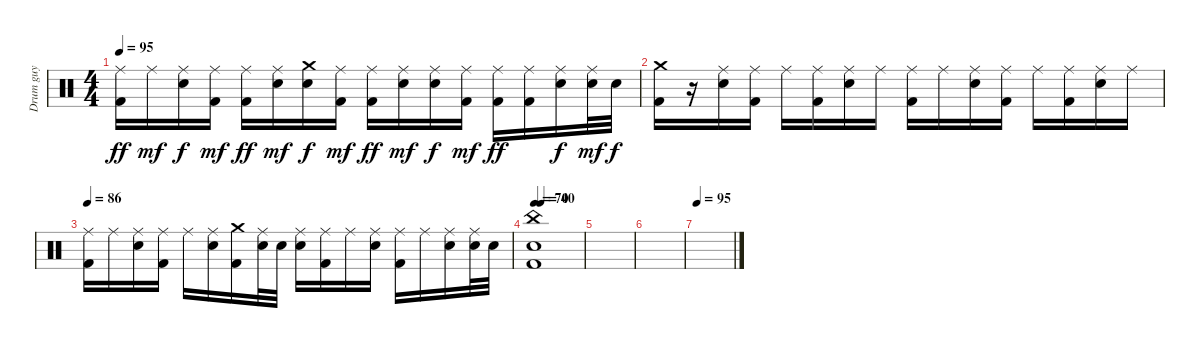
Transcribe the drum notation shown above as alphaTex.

\track ("Drum guy" "Drum guy") {instrument percussion}
\staff {score}
\articulation defaults
\ts (4 4)
\tempo 95
\clef neutral
\ks c
("Ride (middle)" "Kick (hit) 2").16{dy ff} "Ride (middle)".16{dy mf} ("Ride (middle)" "Electric Snare (hit)").16{dy f} ("Ride (middle)" "Kick (hit) 2").16{dy mf} ("Ride (middle)" "Kick (hit) 2").16{dy ff} ("Ride (middle)" "Electric Snare (hit)").16{dy mf} ("Crash medium (hit)" "Electric Snare (hit)").16{dy f} ("Ride (middle)" "Kick (hit) 2").16{dy mf} ("Ride (middle)" "Kick (hit) 2").16{dy ff} ("Ride (middle)" "Electric Snare (hit)").16{dy mf} ("Ride (middle)" "Electric Snare (hit)").16{dy f} ("Ride (middle)" "Kick (hit) 2").16{dy mf} ("Ride (middle)" "Kick (hit) 2").16{dy ff} ("Ride (middle)" "Kick (hit) 2").16 ("Ride (middle)" "Electric Snare (hit)").16{dy f} ("Ride (middle)" "Electric Snare (hit)").32{dy mf} "Electric Snare (hit)".32{dy f} |
("Crash medium (hit)" "Kick (hit) 2").16 r.16 ("Ride (middle)" "Electric Snare (hit)").16 ("Ride (middle)" "Kick (hit) 2").16 "Ride (middle)".16 ("Ride (middle)" "Kick (hit) 2").16 ("Ride (middle)" "Electric Snare (hit)").16 "Ride (middle)".16 ("Ride (middle)" "Kick (hit) 2").16 "Ride (middle)".16 ("Ride (middle)" "Electric Snare (hit)").16 ("Ride (middle)" "Kick (hit) 2").16 "Ride (middle)".16 ("Ride (middle)" "Kick (hit) 2").16 ("Ride (middle)" "Electric Snare (hit)").16 "Ride (middle)".16 |
\tempo 86
("Ride (middle)" "Kick (hit) 2").16 "Ride (middle)".16 ("Ride (middle)" "Electric Snare (hit)").16 ("Ride (middle)" "Kick (hit) 2").16 "Ride (middle)".16 ("Ride (middle)" "Electric Snare (hit)").16 ("Crash medium (hit)" "Kick (hit) 2").16 ("Ride (middle)" "Electric Snare (hit)").32 "Electric Snare (hit)".32 ("Ride (middle)" "Electric Snare (hit)").16 ("Ride (middle)" "Kick (hit) 2").16 "Ride (middle)".16 ("Ride (middle)" "Electric Snare (hit)").16 ("Ride (middle)" "Kick (hit) 2").16 "Ride (middle)".16 ("Ride (middle)" "Electric Snare (hit)").16 ("Ride (middle)" "Electric Snare (hit)").32 "Electric Snare (hit)".32 |
\tempo 70
\tempo (40 0.125)
("China (hit)" "Electric Snare (hit)" "Kick (hit) 2").1 |
|
|
\tempo 95
